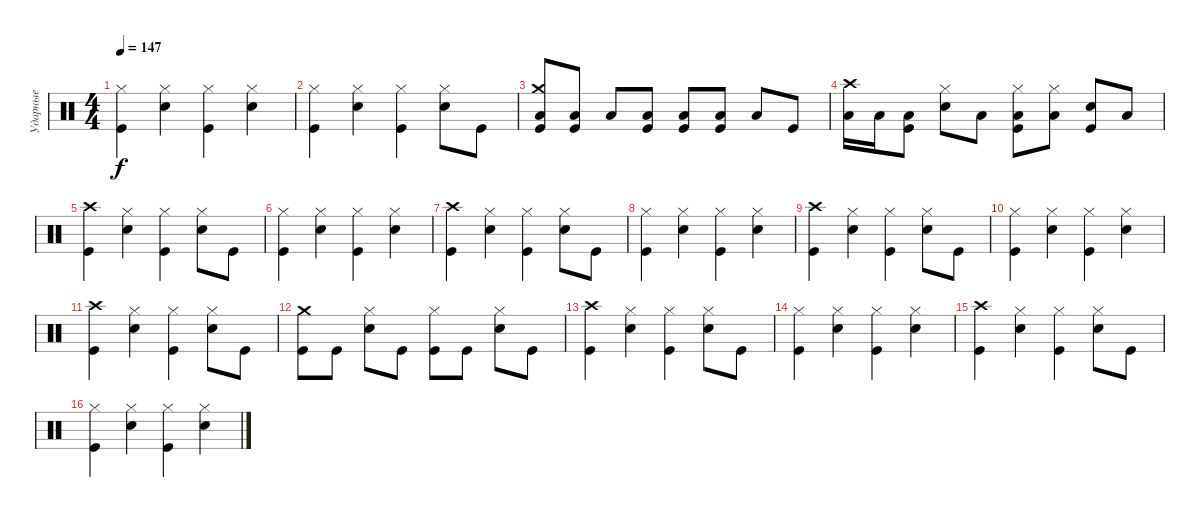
\track ("Ударные" "Ударные") {instrument percussion}
\staff {score}
\articulation defaults
\ts (4 4)
\tempo 147
\clef neutral
\ks c
("Hi-Hat (closed)" "Kick (hit)").4{dy f} ("Hi-Hat (closed)" "Electric Snare (hit)").4 ("Hi-Hat (closed)" "Kick (hit)").4 ("Hi-Hat (closed)" "Electric Snare (hit)").4 |
("Hi-Hat (closed)" "Kick (hit)").4 ("Hi-Hat (closed)" "Electric Snare (hit)").4 ("Hi-Hat (closed)" "Kick (hit)").4 ("Hi-Hat (closed)" "Electric Snare (hit)").8 "Kick (hit)".8 |
("Crash medium (hit)" "Low Tom (hit)" "Kick (hit)").8 ("Low Tom (hit)" "Kick (hit)").8 "Low Tom (hit)".8 ("Low Tom (hit)" "Kick (hit)").8 ("Low Tom (hit)" "Kick (hit)").8 ("Low Tom (hit)" "Kick (hit)").8 "Low Tom (hit)".8 "Kick (hit)".8 |
("Crash high (hit)" "Low Tom (hit)").16 "Low Tom (hit)".16 ("Low Tom (hit)" "Kick (hit)").8 ("Hi-Hat (closed)" "Electric Snare (hit)").8 "Low Tom (hit)".8 ("Hi-Hat (closed)" "Low Tom (hit)" "Kick (hit)").8 ("Hi-Hat (closed)" "Low Tom (hit)").8 ("Electric Snare (hit)" "Kick (hit)").8 "Low Tom (hit)".8 |
("Crash high (hit)" "Kick (hit)").4 ("Hi-Hat (closed)" "Electric Snare (hit)").4 ("Hi-Hat (closed)" "Kick (hit)").4 ("Hi-Hat (closed)" "Electric Snare (hit)").8 "Kick (hit)".8 |
("Hi-Hat (closed)" "Kick (hit)").4 ("Hi-Hat (closed)" "Electric Snare (hit)").4 ("Hi-Hat (closed)" "Kick (hit)").4 ("Hi-Hat (closed)" "Electric Snare (hit)").4 |
("Crash high (hit)" "Kick (hit)").4 ("Hi-Hat (closed)" "Electric Snare (hit)").4 ("Hi-Hat (closed)" "Kick (hit)").4 ("Hi-Hat (closed)" "Electric Snare (hit)").8 "Kick (hit)".8 |
("Hi-Hat (closed)" "Kick (hit)").4 ("Hi-Hat (closed)" "Electric Snare (hit)").4 ("Hi-Hat (closed)" "Kick (hit)").4 ("Hi-Hat (closed)" "Electric Snare (hit)").4 |
("Crash high (hit)" "Kick (hit)").4 ("Hi-Hat (closed)" "Electric Snare (hit)").4 ("Hi-Hat (closed)" "Kick (hit)").4 ("Hi-Hat (closed)" "Electric Snare (hit)").8 "Kick (hit)".8 |
("Hi-Hat (closed)" "Kick (hit)").4 ("Hi-Hat (closed)" "Electric Snare (hit)").4 ("Hi-Hat (closed)" "Kick (hit)").4 ("Hi-Hat (closed)" "Electric Snare (hit)").4 |
("Crash high (hit)" "Kick (hit)").4 ("Hi-Hat (closed)" "Electric Snare (hit)").4 ("Hi-Hat (closed)" "Kick (hit)").4 ("Hi-Hat (closed)" "Electric Snare (hit)").8 "Kick (hit)".8 |
("Crash medium (hit)" "Kick (hit)").8 "Kick (hit)".8 ("Hi-Hat (closed)" "Electric Snare (hit)").8 "Kick (hit)".8 ("Hi-Hat (closed)" "Kick (hit)").8 "Kick (hit)".8 ("Hi-Hat (closed)" "Electric Snare (hit)").8 "Kick (hit)".8 |
("Crash high (hit)" "Kick (hit)").4 ("Hi-Hat (closed)" "Electric Snare (hit)").4 ("Hi-Hat (closed)" "Kick (hit)").4 ("Hi-Hat (closed)" "Electric Snare (hit)").8 "Kick (hit)".8 |
("Hi-Hat (closed)" "Kick (hit)").4 ("Hi-Hat (closed)" "Electric Snare (hit)").4 ("Hi-Hat (closed)" "Kick (hit)").4 ("Hi-Hat (closed)" "Electric Snare (hit)").4 |
("Crash high (hit)" "Kick (hit)").4 ("Hi-Hat (closed)" "Electric Snare (hit)").4 ("Hi-Hat (closed)" "Kick (hit)").4 ("Hi-Hat (closed)" "Electric Snare (hit)").8 "Kick (hit)".8 |
("Hi-Hat (closed)" "Kick (hit)").4 ("Hi-Hat (closed)" "Electric Snare (hit)").4 ("Hi-Hat (closed)" "Kick (hit)").4 ("Hi-Hat (closed)" "Electric Snare (hit)").4
